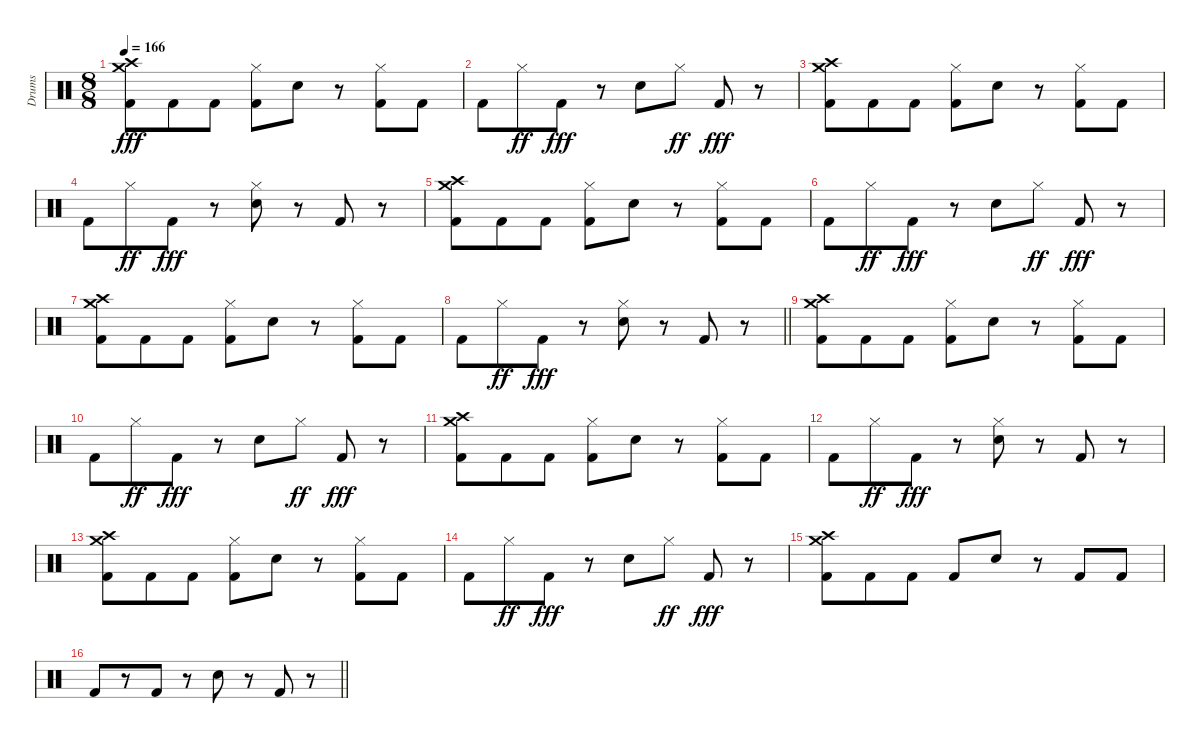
\track ("Drums" "Drums") {instrument percussion}
\staff {score}
\articulation defaults
\ts (8 8)
\tempo 166
\clef neutral
\ks c
("Crash high (hit)" "Crash medium (hit)" "Kick (hit) 2").8{dy fff} "Kick (hit) 2".8 "Kick (hit) 2".8 ("Hi-Hat (closed)" "Kick (hit) 2").8 "Electric Snare (hit)".8 r.8 ("Hi-Hat (closed)" "Kick (hit) 2").8 "Kick (hit) 2".8 |
"Kick (hit) 2".8 "Hi-Hat (closed)".8{dy ff} "Kick (hit) 2".8{dy fff} r.8 "Electric Snare (hit)".8 "Hi-Hat (closed)".8{dy ff} "Kick (hit) 2".8{dy fff} r.8 |
("Crash high (hit)" "Crash medium (hit)" "Kick (hit) 2").8 "Kick (hit) 2".8 "Kick (hit) 2".8 ("Hi-Hat (closed)" "Kick (hit) 2").8 "Electric Snare (hit)".8 r.8 ("Hi-Hat (closed)" "Kick (hit) 2").8 "Kick (hit) 2".8 |
"Kick (hit) 2".8 "Hi-Hat (closed)".8{dy ff} "Kick (hit) 2".8{dy fff} r.8 ("Hi-Hat (closed)" "Electric Snare (hit)").8 r.8 "Kick (hit) 2".8 r.8 |
("Crash high (hit)" "Crash medium (hit)" "Kick (hit) 2").8 "Kick (hit) 2".8 "Kick (hit) 2".8 ("Hi-Hat (closed)" "Kick (hit) 2").8 "Electric Snare (hit)".8 r.8 ("Hi-Hat (closed)" "Kick (hit) 2").8 "Kick (hit) 2".8 |
"Kick (hit) 2".8 "Hi-Hat (closed)".8{dy ff} "Kick (hit) 2".8{dy fff} r.8 "Electric Snare (hit)".8 "Hi-Hat (closed)".8{dy ff} "Kick (hit) 2".8{dy fff} r.8 |
("Crash high (hit)" "Crash medium (hit)" "Kick (hit) 2").8 "Kick (hit) 2".8 "Kick (hit) 2".8 ("Hi-Hat (closed)" "Kick (hit) 2").8 "Electric Snare (hit)".8 r.8 ("Hi-Hat (closed)" "Kick (hit) 2").8 "Kick (hit) 2".8 |
\barLineRight lightlight "Kick (hit) 2".8 "Hi-Hat (closed)".8{dy ff} "Kick (hit) 2".8{dy fff}
r.8 ("Hi-Hat (closed)" "Electric Snare (hit)").8 r.8 "Kick (hit) 2".8 r.8 |
("Crash high (hit)" "Crash medium (hit)" "Kick (hit) 2").8 "Kick (hit) 2".8 "Kick (hit) 2".8 ("Hi-Hat (closed)" "Kick (hit) 2").8 "Electric Snare (hit)".8 r.8 ("Hi-Hat (closed)" "Kick (hit) 2").8 "Kick (hit) 2".8 |
"Kick (hit) 2".8 "Hi-Hat (closed)".8{dy ff} "Kick (hit) 2".8{dy fff} r.8 "Electric Snare (hit)".8 "Hi-Hat (closed)".8{dy ff} "Kick (hit) 2".8{dy fff} r.8 |
("Crash high (hit)" "Crash medium (hit)" "Kick (hit) 2").8 "Kick (hit) 2".8 "Kick (hit) 2".8 ("Hi-Hat (closed)" "Kick (hit) 2").8 "Electric Snare (hit)".8 r.8 ("Hi-Hat (closed)" "Kick (hit) 2").8 "Kick (hit) 2".8 |
"Kick (hit) 2".8 "Hi-Hat (closed)".8{dy ff} "Kick (hit) 2".8{dy fff} r.8 ("Hi-Hat (closed)" "Electric Snare (hit)").8 r.8 "Kick (hit) 2".8 r.8 |
("Crash high (hit)" "Crash medium (hit)" "Kick (hit) 2").8 "Kick (hit) 2".8 "Kick (hit) 2".8 ("Hi-Hat (closed)" "Kick (hit) 2").8 "Electric Snare (hit)".8 r.8 ("Hi-Hat (closed)" "Kick (hit) 2").8 "Kick (hit) 2".8 |
"Kick (hit) 2".8 "Hi-Hat (closed)".8{dy ff} "Kick (hit) 2".8{dy fff} r.8 "Electric Snare (hit)".8 "Hi-Hat (closed)".8{dy ff} "Kick (hit) 2".8{dy fff} r.8 |
("Crash high (hit)" "Crash medium (hit)" "Kick (hit) 2").8 "Kick (hit) 2".8 "Kick (hit) 2".8 "Kick (hit) 2".8 "Electric Snare (hit)".8 r.8 "Kick (hit) 2".8 "Kick (hit) 2".8 |
\barLineRight lightlight "Kick (hit) 2".8
r.8 "Kick (hit) 2".8 r.8 "Electric Snare (hit)".8 r.8 "Kick (hit) 2".8 r.8
